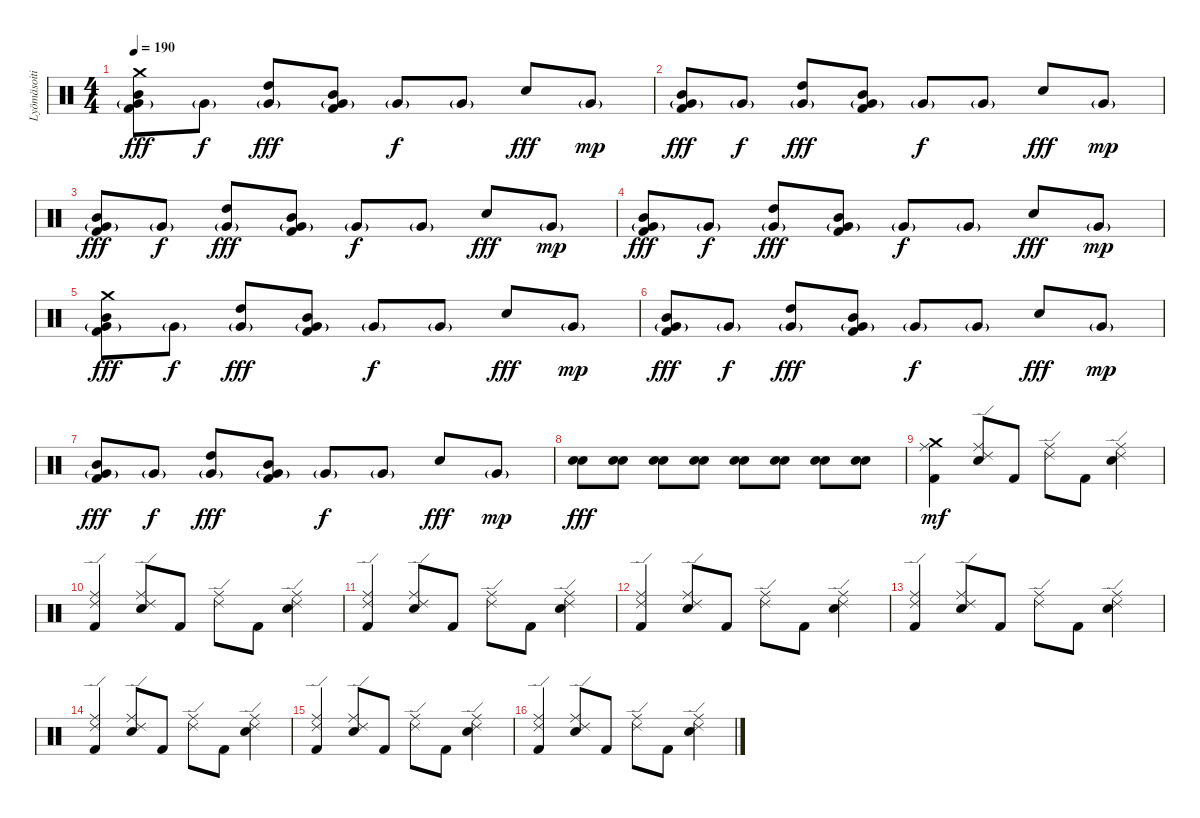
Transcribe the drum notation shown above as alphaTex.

\track ("Lyömäsoitin" "Lyömäsoiti") {instrument percussion}
\staff {score}
\articulation defaults
\ts (4 4)
\tempo 190
\clef neutral
\ks c
("Crash medium (hit)" "Mid Tom (hit)" "Very Low Tom (hit)"{g} "Kick (hit) 2").8{dy fff} "Very Low Tom (hit)"{g}.8{dy f} ("High Tom (hit)" "Very Low Tom (hit)"{g}).8{dy fff} ("Mid Tom (hit)" "Very Low Tom (hit)"{g} "Kick (hit) 2").8 "Very Low Tom (hit)"{g}.8{dy f} "Very Low Tom (hit)"{g}.8 "Electric Snare (hit)".8{dy fff} "Very Low Tom (hit)"{g}.8{dy mp} |
("Mid Tom (hit)" "Very Low Tom (hit)"{g} "Kick (hit) 2").8{dy fff} "Very Low Tom (hit)"{g}.8{dy f} ("High Tom (hit)" "Very Low Tom (hit)"{g}).8{dy fff} ("Mid Tom (hit)" "Very Low Tom (hit)"{g} "Kick (hit) 2").8 "Very Low Tom (hit)"{g}.8{dy f} "Very Low Tom (hit)"{g}.8 "Electric Snare (hit)".8{dy fff} "Very Low Tom (hit)"{g}.8{dy mp} |
("Mid Tom (hit)" "Very Low Tom (hit)"{g} "Kick (hit) 2").8{dy fff} "Very Low Tom (hit)"{g}.8{dy f} ("High Tom (hit)" "Very Low Tom (hit)"{g}).8{dy fff} ("Mid Tom (hit)" "Very Low Tom (hit)"{g} "Kick (hit) 2").8 "Very Low Tom (hit)"{g}.8{dy f} "Very Low Tom (hit)"{g}.8 "Electric Snare (hit)".8{dy fff} "Very Low Tom (hit)"{g}.8{dy mp} |
("Mid Tom (hit)" "Very Low Tom (hit)"{g} "Kick (hit) 2").8{dy fff} "Very Low Tom (hit)"{g}.8{dy f} ("High Tom (hit)" "Very Low Tom (hit)"{g}).8{dy fff} ("Mid Tom (hit)" "Very Low Tom (hit)"{g} "Kick (hit) 2").8 "Very Low Tom (hit)"{g}.8{dy f} "Very Low Tom (hit)"{g}.8 "Electric Snare (hit)".8{dy fff} "Very Low Tom (hit)"{g}.8{dy mp} |
("Crash medium (hit)" "Mid Tom (hit)" "Very Low Tom (hit)"{g} "Kick (hit) 2").8{dy fff} "Very Low Tom (hit)"{g}.8{dy f} ("High Tom (hit)" "Very Low Tom (hit)"{g}).8{dy fff} ("Mid Tom (hit)" "Very Low Tom (hit)"{g} "Kick (hit) 2").8 "Very Low Tom (hit)"{g}.8{dy f} "Very Low Tom (hit)"{g}.8 "Electric Snare (hit)".8{dy fff} "Very Low Tom (hit)"{g}.8{dy mp} |
("Mid Tom (hit)" "Very Low Tom (hit)"{g} "Kick (hit) 2").8{dy fff} "Very Low Tom (hit)"{g}.8{dy f} ("High Tom (hit)" "Very Low Tom (hit)"{g}).8{dy fff} ("Mid Tom (hit)" "Very Low Tom (hit)"{g} "Kick (hit) 2").8 "Very Low Tom (hit)"{g}.8{dy f} "Very Low Tom (hit)"{g}.8 "Electric Snare (hit)".8{dy fff} "Very Low Tom (hit)"{g}.8{dy mp} |
("Mid Tom (hit)" "Very Low Tom (hit)"{g} "Kick (hit) 2").8{dy fff} "Very Low Tom (hit)"{g}.8{dy f} ("High Tom (hit)" "Very Low Tom (hit)"{g}).8{dy fff} ("Mid Tom (hit)" "Very Low Tom (hit)"{g} "Kick (hit) 2").8 "Very Low Tom (hit)"{g}.8{dy f} "Very Low Tom (hit)"{g}.8 "Electric Snare (hit)".8{dy fff} "Very Low Tom (hit)"{g}.8{dy mp volume 5} |
("Snare (hit) 2" "Electric Snare (hit)").8{dy fff volume 14} ("Snare (hit) 2" "Electric Snare (hit)").8 ("Snare (hit) 2" "Electric Snare (hit)").8 ("Snare (hit) 2" "Electric Snare (hit)").8 ("Snare (hit) 2" "Electric Snare (hit)").8 ("Snare (hit) 2" "Electric Snare (hit)").8 ("Snare (hit) 2" "Electric Snare (hit)").8 ("Snare (hit) 2" "Electric Snare (hit)").8 |
("Crash medium (hit)" "Ride (middle)" "Kick (hit) 2").4{dy mf} ("Ride (edge) 2" "Ride (middle)" "Snare (hit) 2").8 "Kick (hit) 2".8 ("Ride (edge) 2" "Ride (middle)").8 "Kick (hit) 2".8 ("Ride (edge) 2" "Ride (middle)" "Snare (hit) 2").4 |
("Ride (edge) 2" "Ride (middle)" "Kick (hit) 2").4 ("Ride (edge) 2" "Ride (middle)" "Snare (hit) 2").8 "Kick (hit) 2".8 ("Ride (edge) 2" "Ride (middle)").8 "Kick (hit) 2".8 ("Ride (edge) 2" "Ride (middle)" "Snare (hit) 2").4 |
("Ride (edge) 2" "Ride (middle)" "Kick (hit) 2").4 ("Ride (edge) 2" "Ride (middle)" "Snare (hit) 2").8 "Kick (hit) 2".8 ("Ride (edge) 2" "Ride (middle)").8 "Kick (hit) 2".8 ("Ride (edge) 2" "Ride (middle)" "Snare (hit) 2").4 |
("Ride (edge) 2" "Ride (middle)" "Kick (hit) 2").4 ("Ride (edge) 2" "Ride (middle)" "Snare (hit) 2").8 "Kick (hit) 2".8 ("Ride (edge) 2" "Ride (middle)").8 "Kick (hit) 2".8 ("Ride (edge) 2" "Ride (middle)" "Snare (hit) 2").4 |
("Ride (edge) 2" "Ride (middle)" "Kick (hit) 2").4 ("Ride (edge) 2" "Ride (middle)" "Snare (hit) 2").8 "Kick (hit) 2".8 ("Ride (edge) 2" "Ride (middle)").8 "Kick (hit) 2".8 ("Ride (edge) 2" "Ride (middle)" "Snare (hit) 2").4 |
("Ride (edge) 2" "Ride (middle)" "Kick (hit) 2").4 ("Ride (edge) 2" "Ride (middle)" "Snare (hit) 2").8 "Kick (hit) 2".8 ("Ride (edge) 2" "Ride (middle)").8 "Kick (hit) 2".8 ("Ride (edge) 2" "Ride (middle)" "Snare (hit) 2").4 |
("Ride (edge) 2" "Ride (middle)" "Kick (hit) 2").4 ("Ride (edge) 2" "Ride (middle)" "Snare (hit) 2").8 "Kick (hit) 2".8 ("Ride (edge) 2" "Ride (middle)").8 "Kick (hit) 2".8 ("Ride (edge) 2" "Ride (middle)" "Snare (hit) 2").4 |
("Ride (edge) 2" "Ride (middle)" "Kick (hit) 2").4 ("Ride (edge) 2" "Ride (middle)" "Snare (hit) 2").8 "Kick (hit) 2".8 ("Ride (edge) 2" "Ride (middle)").8 "Kick (hit) 2".8 ("Ride (edge) 2" "Ride (middle)" "Snare (hit) 2").4
